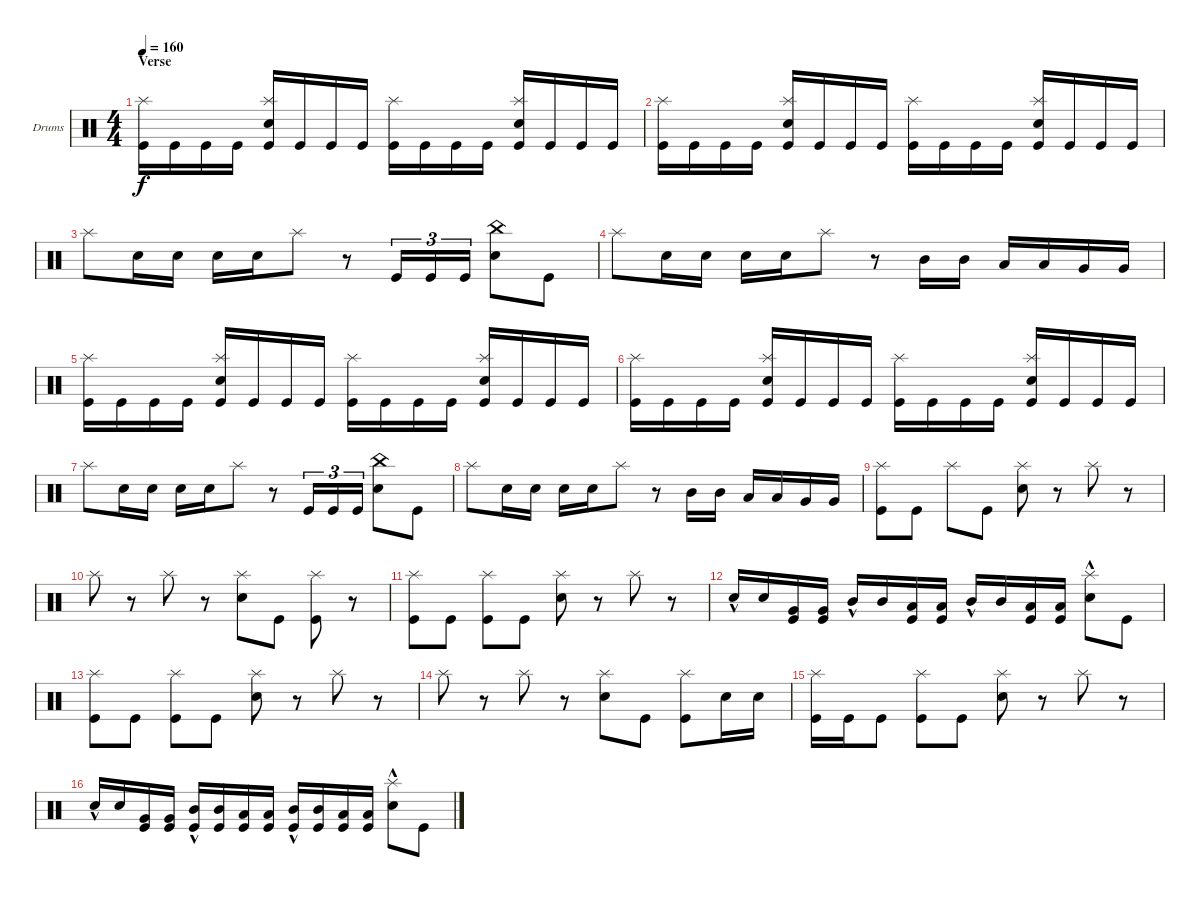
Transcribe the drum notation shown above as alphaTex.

\defaultSystemsLayout 4
\bracketExtendMode groupsimilarinstruments
\firstSystemTrackNameOrientation horizontal
\otherSystemsTrackNameOrientation horizontal
\track ("Drumkit" "Drums") {instrument percussion}
\staff {score}
\articulation defaults
\ts (4 4)
\section ("" "Verse")
\tempo 160
\clef neutral
\ks c
("Kick (hit)" "Splash (hit)").16{dy f} "Kick (hit)".16 "Kick (hit)".16 "Kick (hit)".16 ("Kick (hit)" "Splash (hit)" "Snare (hit) 2").16 "Kick (hit)".16 "Kick (hit)".16 "Kick (hit)".16 ("Kick (hit)" "Splash (hit)").16 "Kick (hit)".16 "Kick (hit)".16 "Kick (hit)".16 ("Kick (hit)" "Splash (hit)" "Snare (hit) 2").16 "Kick (hit)".16 "Kick (hit)".16 "Kick (hit)".16 |
("Kick (hit)" "Splash (hit)").16 "Kick (hit)".16 "Kick (hit)".16 "Kick (hit)".16 ("Kick (hit)" "Splash (hit)" "Snare (hit) 2").16 "Kick (hit)".16 "Kick (hit)".16 "Kick (hit)".16 ("Kick (hit)" "Splash (hit)").16 "Kick (hit)".16 "Kick (hit)".16 "Kick (hit)".16 ("Kick (hit)" "Splash (hit)" "Snare (hit) 2").16 "Kick (hit)".16 "Kick (hit)".16 "Kick (hit)".16 |
"Splash (hit)".8 "Snare (hit) 2".16 "Snare (hit) 2".16 "Snare (hit) 2".16 "Snare (hit) 2".16 "Splash (hit)".8 r.8 "Kick (hit)".16{tu (3 2)} "Kick (hit)".16{tu (3 2)} "Kick (hit)".16{tu (3 2)} ("Snare (hit) 2" "China (hit)").8 "Kick (hit)".8 |
"Splash (hit)".8 "Snare (hit) 2".16 "Snare (hit) 2".16 "Snare (hit) 2".16 "Snare (hit) 2".16 "Splash (hit)".8 r.8 "Mid Tom (hit)".16 "Mid Tom (hit)".16 "Low Tom (hit)".16 "Low Tom (hit)".16 "Very Low Tom (hit)".16 "Very Low Tom (hit)".16 |
("Kick (hit)" "Splash (hit)").16 "Kick (hit)".16 "Kick (hit)".16 "Kick (hit)".16 ("Kick (hit)" "Splash (hit)" "Snare (hit) 2").16 "Kick (hit)".16 "Kick (hit)".16 "Kick (hit)".16 ("Kick (hit)" "Splash (hit)").16 "Kick (hit)".16 "Kick (hit)".16 "Kick (hit)".16 ("Kick (hit)" "Splash (hit)" "Snare (hit) 2").16 "Kick (hit)".16 "Kick (hit)".16 "Kick (hit)".16 |
("Kick (hit)" "Splash (hit)").16 "Kick (hit)".16 "Kick (hit)".16 "Kick (hit)".16 ("Kick (hit)" "Splash (hit)" "Snare (hit) 2").16 "Kick (hit)".16 "Kick (hit)".16 "Kick (hit)".16 ("Kick (hit)" "Splash (hit)").16 "Kick (hit)".16 "Kick (hit)".16 "Kick (hit)".16 ("Kick (hit)" "Splash (hit)" "Snare (hit) 2").16 "Kick (hit)".16 "Kick (hit)".16 "Kick (hit)".16 |
"Splash (hit)".8 "Snare (hit) 2".16 "Snare (hit) 2".16 "Snare (hit) 2".16 "Snare (hit) 2".16 "Splash (hit)".8 r.8 "Kick (hit)".16{tu (3 2)} "Kick (hit)".16{tu (3 2)} "Kick (hit)".16{tu (3 2)} ("Snare (hit) 2" "China (hit)").8 "Kick (hit)".8 |
"Splash (hit)".8 "Snare (hit) 2".16 "Snare (hit) 2".16 "Snare (hit) 2".16 "Snare (hit) 2".16 "Splash (hit)".8 r.8 "Mid Tom (hit)".16 "Mid Tom (hit)".16 "Low Tom (hit)".16 "Low Tom (hit)".16 "Very Low Tom (hit)".16 "Very Low Tom (hit)".16 |
("Kick (hit)" "Splash (hit)").8 "Kick (hit)".8 "Splash (hit)".8 "Kick (hit)".8 ("Splash (hit)" "Snare (hit) 2").8 r.8 "Splash (hit)".8 r.8 |
"Splash (hit)".8 r.8 "Splash (hit)".8 r.8 ("Splash (hit)" "Snare (hit) 2").8 "Kick (hit)".8 ("Splash (hit)" "Kick (hit)").8 r.8 |
("Kick (hit)" "Splash (hit)").8 "Kick (hit)".8 ("Splash (hit)" "Kick (hit)").8 "Kick (hit)".8 ("Splash (hit)" "Snare (hit) 2").8 r.8 "Splash (hit)".8 r.8 |
"Snare (hit) 2"{hac}.16 "Snare (hit) 2".16 ("Very Low Tom (hit)" "Kick (hit)").16 ("Very Low Tom (hit)" "Kick (hit)").16 "Mid Tom (hit)"{hac}.16 "Mid Tom (hit)".16 ("Low Tom (hit)" "Kick (hit)").16 ("Low Tom (hit)" "Kick (hit)").16 "Mid Tom (hit)"{hac}.16 "Mid Tom (hit)".16 ("Low Tom (hit)" "Kick (hit)").16 ("Low Tom (hit)" "Kick (hit)").16 ("Snare (hit) 2"{hac} "Splash (hit)").8 "Kick (hit)".8 |
("Kick (hit)" "Splash (hit)").8 "Kick (hit)".8 ("Splash (hit)" "Kick (hit)").8 "Kick (hit)".8 ("Splash (hit)" "Snare (hit) 2").8 r.8 "Splash (hit)".8 r.8 |
"Splash (hit)".8 r.8 "Splash (hit)".8 r.8 ("Splash (hit)" "Snare (hit) 2").8 "Kick (hit)".8 ("Splash (hit)" "Kick (hit)").8 "Snare (hit) 2".16 "Snare (hit) 2".16 |
("Kick (hit)" "Splash (hit)").16 "Kick (hit)".16 "Kick (hit)".8 ("Splash (hit)" "Kick (hit)").8 "Kick (hit)".8 ("Splash (hit)" "Snare (hit) 2").8 r.8 "Splash (hit)".8 r.8 |
"Snare (hit) 2"{hac}.16 "Snare (hit) 2".16 ("Very Low Tom (hit)" "Kick (hit)").16 ("Very Low Tom (hit)" "Kick (hit)").16 ("Mid Tom (hit)"{hac} "Kick (hit)").16 ("Mid Tom (hit)" "Kick (hit)").16 ("Low Tom (hit)" "Kick (hit)").16 ("Low Tom (hit)" "Kick (hit)").16 ("Mid Tom (hit)"{hac} "Kick (hit)").16 ("Mid Tom (hit)" "Kick (hit)").16 ("Low Tom (hit)" "Kick (hit)").16 ("Low Tom (hit)" "Kick (hit)").16 ("Snare (hit) 2"{hac} "Splash (hit)").8 "Kick (hit)".8
